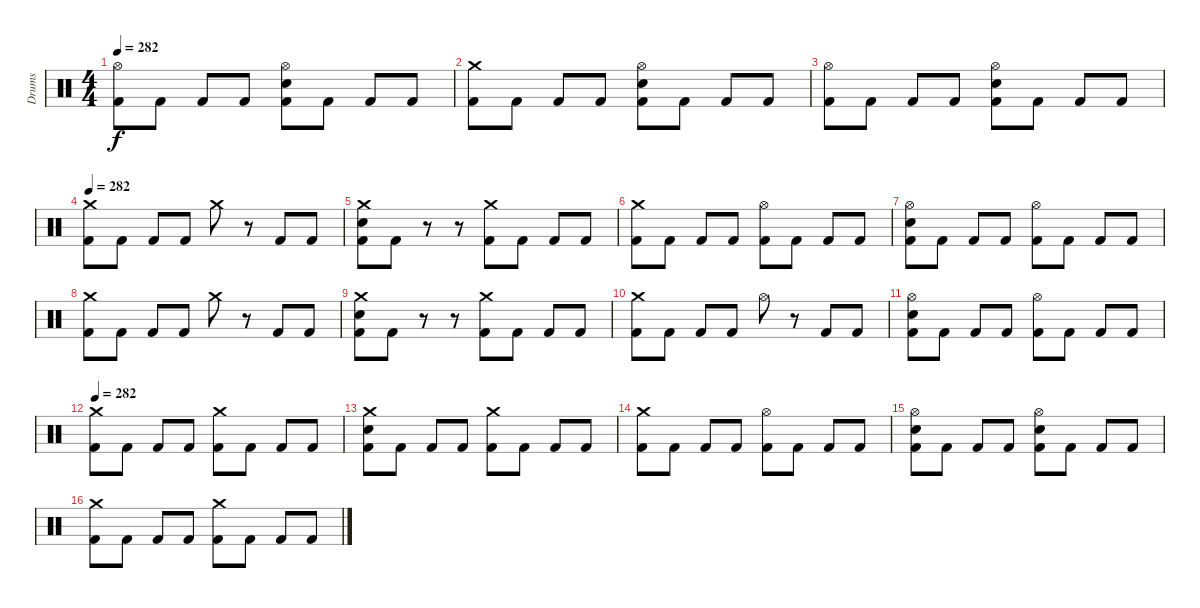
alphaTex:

\track ("Drums" "Drums") {instrument percussion}
\staff {score}
\articulation defaults
\ts (4 4)
\tempo 282
\clef neutral
\ks c
("Hi-Hat (open)" "Kick (hit) 2").8{dy f} "Kick (hit) 2".8 "Kick (hit) 2".8 "Kick (hit) 2".8 ("Hi-Hat (open)" "Snare (hit) 2" "Kick (hit) 2").8 "Kick (hit) 2".8 "Kick (hit) 2".8 "Kick (hit) 2".8 |
("Crash medium (hit)" "Kick (hit) 2").8 "Kick (hit) 2".8 "Kick (hit) 2".8 "Kick (hit) 2".8 ("Hi-Hat (open)" "Snare (hit) 2" "Kick (hit) 2").8 "Kick (hit) 2".8 "Kick (hit) 2".8 "Kick (hit) 2".8 |
("Hi-Hat (open)" "Kick (hit) 2").8 "Kick (hit) 2".8 "Kick (hit) 2".8 "Kick (hit) 2".8 ("Hi-Hat (open)" "Snare (hit) 2" "Kick (hit) 2").8 "Kick (hit) 2".8 "Kick (hit) 2".8 "Kick (hit) 2".8 |
\tempo 282
("Crash medium (hit)" "Kick (hit) 2").8 "Kick (hit) 2".8 "Kick (hit) 2".8 "Kick (hit) 2".8 "Crash medium (hit)".8 r.8 "Kick (hit) 2".8 "Kick (hit) 2".8 |
("Crash medium (hit)" "Snare (hit) 2" "Kick (hit) 2").8 "Kick (hit) 2".8 r.8 r.8 ("Crash medium (hit)" "Kick (hit) 2").8 "Kick (hit) 2".8 "Kick (hit) 2".8 "Kick (hit) 2".8 |
("Crash medium (hit)" "Kick (hit) 2").8 "Kick (hit) 2".8 "Kick (hit) 2".8 "Kick (hit) 2".8 ("Hi-Hat (open)" "Kick (hit) 2").8 "Kick (hit) 2".8 "Kick (hit) 2".8 "Kick (hit) 2".8 |
("Hi-Hat (open)" "Snare (hit) 2" "Kick (hit) 2").8 "Kick (hit) 2".8 "Kick (hit) 2".8 "Kick (hit) 2".8 ("Hi-Hat (open)" "Kick (hit) 2").8 "Kick (hit) 2".8 "Kick (hit) 2".8 "Kick (hit) 2".8 |
("Crash medium (hit)" "Kick (hit) 2").8 "Kick (hit) 2".8 "Kick (hit) 2".8 "Kick (hit) 2".8 "Crash medium (hit)".8 r.8 "Kick (hit) 2".8 "Kick (hit) 2".8 |
("Crash medium (hit)" "Snare (hit) 2" "Kick (hit) 2").8 "Kick (hit) 2".8 r.8 r.8 ("Crash medium (hit)" "Kick (hit) 2").8 "Kick (hit) 2".8 "Kick (hit) 2".8 "Kick (hit) 2".8 |
("Crash medium (hit)" "Kick (hit) 2").8 "Kick (hit) 2".8 "Kick (hit) 2".8 "Kick (hit) 2".8 "Hi-Hat (open)".8 r.8 "Kick (hit) 2".8 "Kick (hit) 2".8 |
("Hi-Hat (open)" "Snare (hit) 2" "Kick (hit) 2").8 "Kick (hit) 2".8 "Kick (hit) 2".8 "Kick (hit) 2".8 ("Hi-Hat (open)" "Kick (hit) 2").8 "Kick (hit) 2".8 "Kick (hit) 2".8 "Kick (hit) 2".8 |
\tempo 282
("Crash medium (hit)" "Kick (hit) 2").8 "Kick (hit) 2".8 "Kick (hit) 2".8 "Kick (hit) 2".8 ("Crash medium (hit)" "Kick (hit) 2").8 "Kick (hit) 2".8 "Kick (hit) 2".8 "Kick (hit) 2".8 |
("Crash medium (hit)" "Snare (hit) 2" "Kick (hit) 2").8 "Kick (hit) 2".8 "Kick (hit) 2".8 "Kick (hit) 2".8 ("Crash medium (hit)" "Kick (hit) 2").8 "Kick (hit) 2".8 "Kick (hit) 2".8 "Kick (hit) 2".8 |
("Crash medium (hit)" "Kick (hit) 2").8 "Kick (hit) 2".8 "Kick (hit) 2".8 "Kick (hit) 2".8 ("Hi-Hat (open)" "Kick (hit) 2").8 "Kick (hit) 2".8 "Kick (hit) 2".8 "Kick (hit) 2".8 |
("Hi-Hat (open)" "Snare (hit) 2" "Kick (hit) 2").8 "Kick (hit) 2".8 "Kick (hit) 2".8 "Kick (hit) 2".8 ("Hi-Hat (open)" "Snare (hit) 2" "Kick (hit) 2").8 "Kick (hit) 2".8 "Kick (hit) 2".8 "Kick (hit) 2".8 |
("Crash medium (hit)" "Kick (hit) 2").8 "Kick (hit) 2".8 "Kick (hit) 2".8 "Kick (hit) 2".8 ("Crash medium (hit)" "Kick (hit) 2").8 "Kick (hit) 2".8 "Kick (hit) 2".8 "Kick (hit) 2".8
